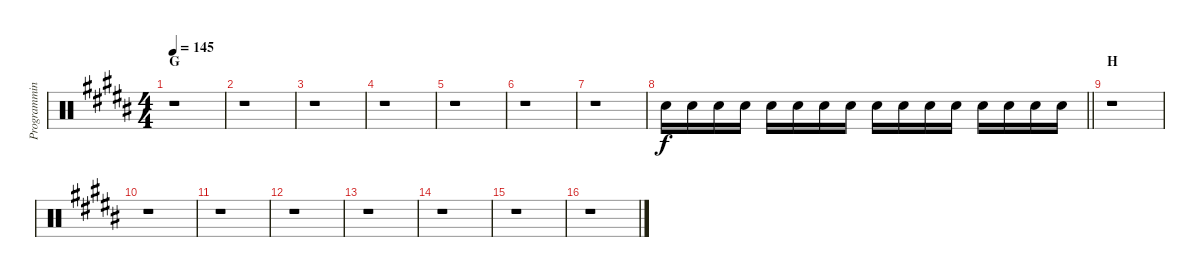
\track ("Programming Drums II" "Programmin") {instrument percussion}
\staff {score}
\articulation defaults
\ts (4 4)
\section ("" "G")
\tempo 145
\clef neutral
\ks b
r.1{dy f} |
r.1 |
r.1 |
r.1 |
r.1 |
r.1 |
r.1 |
\barLineRight lightlight "Electric Snare (hit)".16 "Electric Snare (hit)".16 "Electric Snare (hit)".16 "Electric Snare (hit)".16 "Electric Snare (hit)".16 "Electric Snare (hit)".16 "Electric Snare (hit)".16 "Electric Snare (hit)".16 "Electric Snare (hit)".16 "Electric Snare (hit)".16 "Electric Snare (hit)".16 "Electric Snare (hit)".16 "Electric Snare (hit)".16 "Electric Snare (hit)".16 "Electric Snare (hit)".16 "Electric Snare (hit)".16
|
\section ("" "H")
r.1 |
r.1 |
r.1 |
r.1 |
r.1 |
r.1 |
r.1 |
r.1
